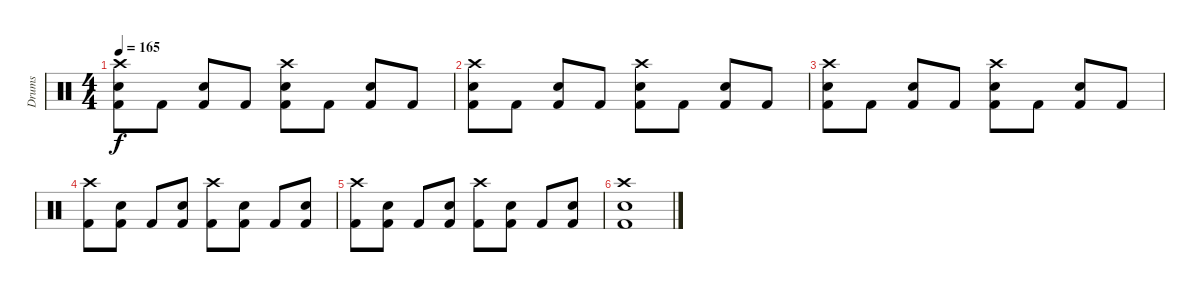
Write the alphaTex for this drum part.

\track ("Drums" "Drums") {instrument percussion}
\staff {score}
\articulation defaults
\ts (4 4)
\tempo 165
\clef neutral
\ks c
("Crash high (hit)" "Snare (hit) 2" "Kick (hit) 2").8{dy f} "Kick (hit) 2".8 ("Snare (hit) 2" "Kick (hit) 2").8 "Kick (hit) 2".8 ("Crash high (hit)" "Snare (hit) 2" "Kick (hit) 2").8 "Kick (hit) 2".8 ("Snare (hit) 2" "Kick (hit) 2").8 "Kick (hit) 2".8 |
("Crash high (hit)" "Snare (hit) 2" "Kick (hit) 2").8 "Kick (hit) 2".8 ("Snare (hit) 2" "Kick (hit) 2").8 "Kick (hit) 2".8 ("Crash high (hit)" "Snare (hit) 2" "Kick (hit) 2").8 "Kick (hit) 2".8 ("Snare (hit) 2" "Kick (hit) 2").8 "Kick (hit) 2".8 |
("Crash high (hit)" "Snare (hit) 2" "Kick (hit) 2").8 "Kick (hit) 2".8 ("Snare (hit) 2" "Kick (hit) 2").8 "Kick (hit) 2".8 ("Crash high (hit)" "Snare (hit) 2" "Kick (hit) 2").8 "Kick (hit) 2".8 ("Snare (hit) 2" "Kick (hit) 2").8 "Kick (hit) 2".8 |
("Crash high (hit)" "Kick (hit) 2").8 ("Snare (hit) 2" "Kick (hit) 2").8 "Kick (hit) 2".8 ("Snare (hit) 2" "Kick (hit) 2").8 ("Crash high (hit)" "Kick (hit) 2").8 ("Snare (hit) 2" "Kick (hit) 2").8 "Kick (hit) 2".8 ("Snare (hit) 2" "Kick (hit) 2").8 |
("Crash high (hit)" "Kick (hit) 2").8 ("Snare (hit) 2" "Kick (hit) 2").8 "Kick (hit) 2".8 ("Snare (hit) 2" "Kick (hit) 2").8 ("Crash high (hit)" "Kick (hit) 2").8 ("Snare (hit) 2" "Kick (hit) 2").8 "Kick (hit) 2".8 ("Snare (hit) 2" "Kick (hit) 2").8 |
("Crash high (hit)" "Snare (hit) 2" "Kick (hit) 2").1
